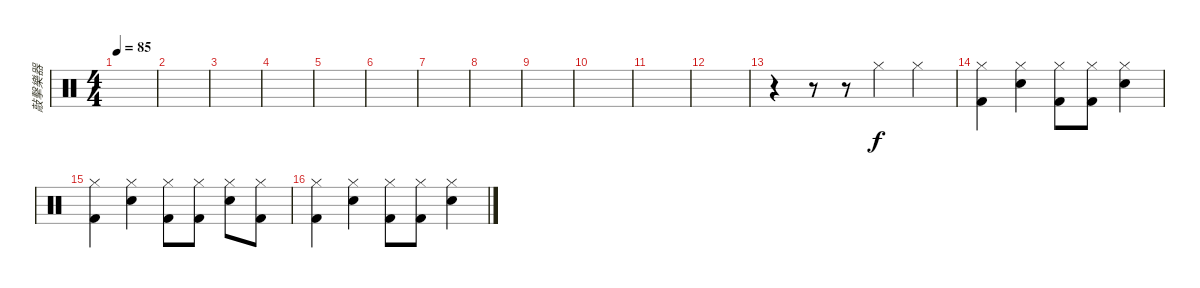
\track ("敲擊樂器" "敲擊樂器") {instrument percussion}
\staff {score}
\articulation defaults
\ts (4 4)
\tempo 85
\clef neutral
\ks c
|
|
|
|
|
|
|
|
|
|
|
|
r.4 r.8 r.8 "Hi-Hat (closed)".4 "Hi-Hat (closed)".4 |
("Hi-Hat (closed)" "Kick (hit) 2").4 ("Hi-Hat (closed)" "Snare (hit) 2").4 ("Hi-Hat (closed)" "Kick (hit) 2").8 ("Hi-Hat (closed)" "Kick (hit) 2").8 ("Hi-Hat (closed)" "Snare (hit) 2").4 |
("Hi-Hat (closed)" "Kick (hit) 2").4 ("Hi-Hat (closed)" "Snare (hit) 2").4 ("Hi-Hat (closed)" "Kick (hit) 2").8 ("Hi-Hat (closed)" "Kick (hit) 2").8 ("Hi-Hat (closed)" "Snare (hit) 2").8 ("Hi-Hat (closed)" "Kick (hit) 2").8 |
("Hi-Hat (closed)" "Kick (hit) 2").4 ("Hi-Hat (closed)" "Snare (hit) 2").4 ("Hi-Hat (closed)" "Kick (hit) 2").8 ("Hi-Hat (closed)" "Kick (hit) 2").8 ("Hi-Hat (closed)" "Snare (hit) 2").4
